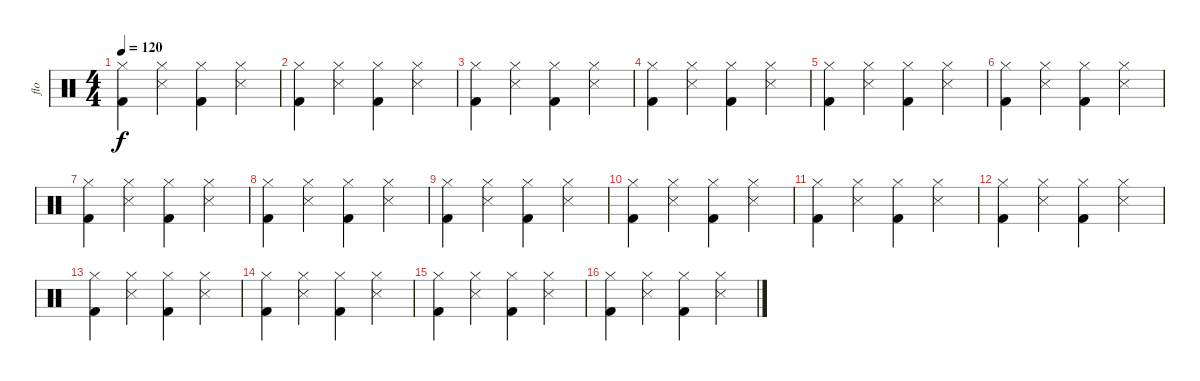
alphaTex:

\track ("flo" "flo") {instrument percussion}
\staff {score}
\articulation defaults
\ts (4 4)
\tempo 120
\clef neutral
\ks c
("Kick (hit) 2" "Hi-Hat (closed)").4{dy f} ("Snare (side stick) 3" "Hi-Hat (closed)").4 ("Kick (hit) 2" "Hi-Hat (closed)").4 ("Snare (side stick) 3" "Hi-Hat (closed)").4 |
("Kick (hit) 2" "Hi-Hat (closed)").4 ("Snare (side stick) 3" "Hi-Hat (closed)").4 ("Kick (hit) 2" "Hi-Hat (closed)").4 ("Snare (side stick) 3" "Hi-Hat (closed)").4 |
("Kick (hit) 2" "Hi-Hat (closed)").4 ("Snare (side stick) 3" "Hi-Hat (closed)").4 ("Kick (hit) 2" "Hi-Hat (closed)").4 ("Snare (side stick) 3" "Hi-Hat (closed)").4 |
("Kick (hit) 2" "Hi-Hat (closed)").4 ("Snare (side stick) 3" "Hi-Hat (closed)").4 ("Kick (hit) 2" "Hi-Hat (closed)").4 ("Snare (side stick) 3" "Hi-Hat (closed)").4 |
("Kick (hit) 2" "Hi-Hat (closed)").4 ("Snare (side stick) 3" "Hi-Hat (closed)").4 ("Kick (hit) 2" "Hi-Hat (closed)").4 ("Snare (side stick) 3" "Hi-Hat (closed)").4 |
("Kick (hit) 2" "Hi-Hat (closed)").4 ("Snare (side stick) 3" "Hi-Hat (closed)").4 ("Kick (hit) 2" "Hi-Hat (closed)").4 ("Snare (side stick) 3" "Hi-Hat (closed)").4 |
("Kick (hit) 2" "Hi-Hat (closed)").4 ("Snare (side stick) 3" "Hi-Hat (closed)").4 ("Kick (hit) 2" "Hi-Hat (closed)").4 ("Snare (side stick) 3" "Hi-Hat (closed)").4 |
("Kick (hit) 2" "Hi-Hat (closed)").4 ("Snare (side stick) 3" "Hi-Hat (closed)").4 ("Kick (hit) 2" "Hi-Hat (closed)").4 ("Snare (side stick) 3" "Hi-Hat (closed)").4 |
("Kick (hit) 2" "Hi-Hat (closed)").4 ("Snare (side stick) 3" "Hi-Hat (closed)").4 ("Kick (hit) 2" "Hi-Hat (closed)").4 ("Snare (side stick) 3" "Hi-Hat (closed)").4 |
("Kick (hit) 2" "Hi-Hat (closed)").4 ("Snare (side stick) 3" "Hi-Hat (closed)").4 ("Kick (hit) 2" "Hi-Hat (closed)").4 ("Snare (side stick) 3" "Hi-Hat (closed)").4 |
("Kick (hit) 2" "Hi-Hat (closed)").4 ("Snare (side stick) 3" "Hi-Hat (closed)").4 ("Kick (hit) 2" "Hi-Hat (closed)").4 ("Snare (side stick) 3" "Hi-Hat (closed)").4 |
("Kick (hit) 2" "Hi-Hat (closed)").4 ("Snare (side stick) 3" "Hi-Hat (closed)").4 ("Kick (hit) 2" "Hi-Hat (closed)").4 ("Snare (side stick) 3" "Hi-Hat (closed)").4 |
("Kick (hit) 2" "Hi-Hat (closed)").4 ("Snare (side stick) 3" "Hi-Hat (closed)").4 ("Kick (hit) 2" "Hi-Hat (closed)").4 ("Snare (side stick) 3" "Hi-Hat (closed)").4 |
("Kick (hit) 2" "Hi-Hat (closed)").4 ("Snare (side stick) 3" "Hi-Hat (closed)").4 ("Kick (hit) 2" "Hi-Hat (closed)").4 ("Snare (side stick) 3" "Hi-Hat (closed)").4 |
("Kick (hit) 2" "Hi-Hat (closed)").4 ("Snare (side stick) 3" "Hi-Hat (closed)").4 ("Kick (hit) 2" "Hi-Hat (closed)").4 ("Snare (side stick) 3" "Hi-Hat (closed)").4 |
("Kick (hit) 2" "Hi-Hat (closed)").4 ("Snare (side stick) 3" "Hi-Hat (closed)").4 ("Kick (hit) 2" "Hi-Hat (closed)").4 ("Snare (side stick) 3" "Hi-Hat (closed)").4
